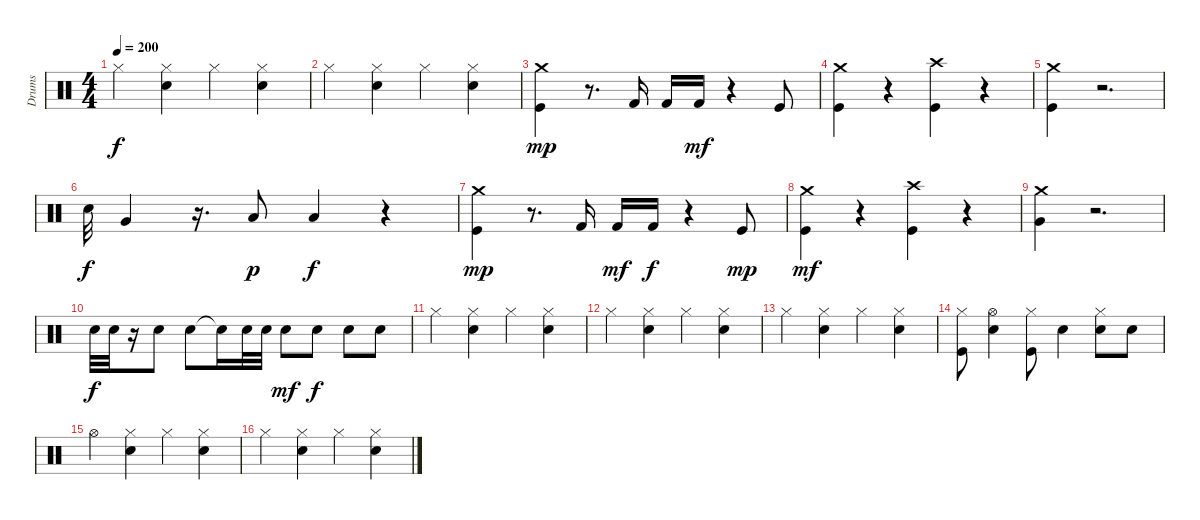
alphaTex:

\track ("Drums" "Drums") {instrument percussion}
\staff {score}
\articulation defaults
\ts (4 4)
\tempo 200
\clef neutral
\ks c "Hi-Hat (closed)".4{dy f}
("Snare (hit) 2" "Hi-Hat (closed)").4 "Hi-Hat (closed)".4 ("Snare (hit) 2" "Hi-Hat (closed)").4 |
"Hi-Hat (closed)".4 ("Snare (hit) 2" "Hi-Hat (closed)").4 "Hi-Hat (closed)".4 ("Snare (hit) 2" "Hi-Hat (closed)").4 |
("Crash medium (hit)" "Kick (hit)").4{dy mp} r.8{d} "Kick (hit) 2".16 "Kick (hit) 2".16 "Kick (hit) 2".16{dy mf} r.4 "Kick (hit)".8 |
("Kick (hit)" "Crash medium (hit)").4 r.4 ("Crash high (hit)" "Kick (hit)").4 r.4 |
("Crash medium (hit)" "Kick (hit)").4 r.2{d} |
"Snare (hit) 2".32{dy f} "Very Low Tom (hit)".4 r.16{d} "Low Tom (hit)".8{dy p} "Low Floor Tom (hit)".4{dy f} r.4 |
("Crash medium (hit)" "Kick (hit)").4{dy mp} r.8{d} "Kick (hit) 2".16 "Kick (hit) 2".16{dy mf} "Kick (hit) 2".16{dy f} r.4 "Kick (hit)".8{dy mp} |
("Kick (hit)" "Crash medium (hit)").4{dy mf} r.4 ("Crash high (hit)" "Kick (hit)").4 r.4 |
("Crash medium (hit)" "Very Low Tom (hit)").4 r.2{d} |
"Electric Snare (hit)".32{dy f} "Electric Snare (hit)".32 r.16 "Electric Snare (hit)".8 "Electric Snare (hit)".8 "Snare (hit)"{t}.16 "Electric Snare (hit)".32 "Electric Snare (hit)".32 "Electric Snare (hit)".8{dy mf} "Electric Snare (hit)".8{dy f} "Electric Snare (hit)".8 "Electric Snare (hit)".8 |
"Hi-Hat (closed)".4 ("Snare (hit) 2" "Hi-Hat (closed)").4 "Hi-Hat (closed)".4 ("Snare (hit) 2" "Hi-Hat (closed)").4 |
"Hi-Hat (closed)".4 ("Snare (hit) 2" "Hi-Hat (closed)").4 "Hi-Hat (closed)".4 ("Snare (hit) 2" "Hi-Hat (closed)").4 |
"Hi-Hat (closed)".4 ("Snare (hit) 2" "Hi-Hat (closed)").4 "Hi-Hat (closed)".4 ("Snare (hit) 2" "Hi-Hat (closed)").4 |
("Kick (hit)" "Hi-Hat (closed)").8 ("Hi-Hat (open)" "Electric Snare (hit)").4 ("Kick (hit)" "Hi-Hat (closed)").8 "Electric Snare (hit)".4 ("Electric Snare (hit)" "Hi-Hat (closed)").8 "Electric Snare (hit)".8 |
"Hi-Hat (open)".4 ("Snare (hit) 2" "Hi-Hat (closed)").4 "Hi-Hat (closed)".4 ("Snare (hit) 2" "Hi-Hat (closed)").4 |
"Hi-Hat (closed)".4 ("Snare (hit) 2" "Hi-Hat (closed)").4 "Hi-Hat (closed)".4 ("Snare (hit) 2" "Hi-Hat (closed)").4
